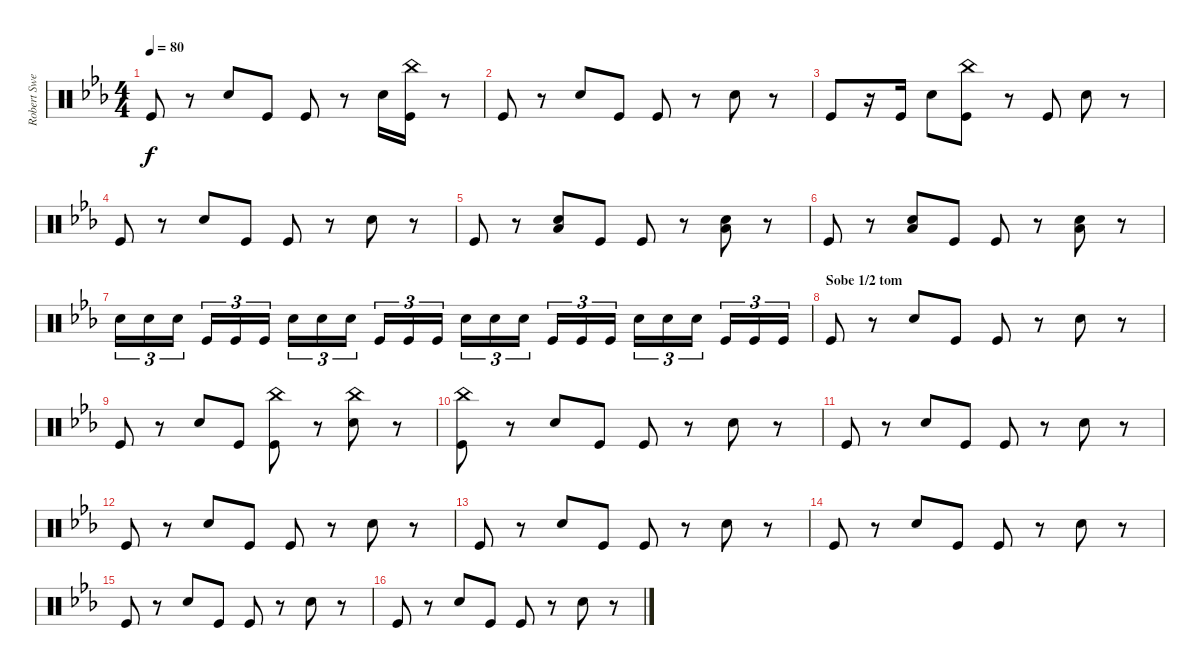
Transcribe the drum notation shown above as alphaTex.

\track ("Robert Sweet" "Robert Swe") {instrument percussion}
\staff {score}
\articulation defaults
\ts (4 4)
\tempo 80
\clef neutral
\ks eb "Kick (hit)".8{dy f}
r.8 "Snare (hit) 2".8 "Kick (hit)".8 "Kick (hit)".8 r.8 "Snare (hit) 2".16 ("Kick (hit)" "China (hit)").16 r.8 |
"Kick (hit)".8 r.8 "Snare (hit) 2".8 "Kick (hit)".8 "Kick (hit)".8 r.8 "Snare (hit) 2".8 r.8 |
"Kick (hit)".8 r.16 "Kick (hit)".16 "Snare (hit) 2".8 ("Kick (hit)" "China (hit)").8 r.8 "Kick (hit)".8 "Snare (hit) 2".8 r.8 |
"Kick (hit)".8 r.8 "Snare (hit) 2".8 "Kick (hit)".8 "Kick (hit)".8 r.8 "Snare (hit) 2".8 r.8 |
"Kick (hit)".8 r.8 ("Snare (hit) 2" "Low Floor Tom (hit)").8 "Kick (hit)".8 "Kick (hit)".8 r.8 ("Snare (hit) 2" "Low Floor Tom (hit)").8 r.8 |
"Kick (hit)".8 r.8 ("Snare (hit) 2" "Low Floor Tom (hit)").8 "Kick (hit)".8 "Kick (hit)".8 r.8 ("Snare (hit) 2" "Low Floor Tom (hit)").8 r.8 |
"Snare (hit) 2".16{tu (3 2)} "Snare (hit) 2".16{tu (3 2)} "Snare (hit) 2".16{tu (3 2)} "Kick (hit)".16{tu (3 2)} "Kick (hit)".16{tu (3 2)} "Kick (hit)".16{tu (3 2)} "Snare (hit) 2".16{tu (3 2)} "Snare (hit) 2".16{tu (3 2)} "Snare (hit) 2".16{tu (3 2)} "Kick (hit)".16{tu (3 2)} "Kick (hit)".16{tu (3 2)} "Kick (hit)".16{tu (3 2)} "Snare (hit) 2".16{tu (3 2)} "Snare (hit) 2".16{tu (3 2)} "Snare (hit) 2".16{tu (3 2)} "Kick (hit)".16{tu (3 2)} "Kick (hit)".16{tu (3 2)} "Kick (hit)".16{tu (3 2)} "Snare (hit) 2".16{tu (3 2)} "Snare (hit) 2".16{tu (3 2)} "Snare (hit) 2".16{tu (3 2)} "Kick (hit)".16{tu (3 2)} "Kick (hit)".16{tu (3 2)} "Kick (hit)".16{tu (3 2)} |
\section ("" "Sobe 1/2 tom")
"Kick (hit)".8 r.8 "Snare (hit) 2".8 "Kick (hit)".8 "Kick (hit)".8 r.8 "Snare (hit) 2".8 r.8 |
"Kick (hit)".8 r.8 "Snare (hit) 2".8 "Kick (hit)".8 ("Kick (hit)" "China (hit)").8 r.8 ("Snare (hit) 2" "China (hit)").8 r.8 |
("Kick (hit)" "China (hit)").8 r.8 "Snare (hit) 2".8 "Kick (hit)".8 "Kick (hit)".8 r.8 "Snare (hit) 2".8 r.8 |
"Kick (hit)".8 r.8 "Snare (hit) 2".8 "Kick (hit)".8 "Kick (hit)".8 r.8 "Snare (hit) 2".8 r.8 |
"Kick (hit)".8 r.8 "Snare (hit) 2".8 "Kick (hit)".8 "Kick (hit)".8 r.8 "Snare (hit) 2".8 r.8 |
"Kick (hit)".8 r.8 "Snare (hit) 2".8 "Kick (hit)".8 "Kick (hit)".8 r.8 "Snare (hit) 2".8 r.8 |
"Kick (hit)".8 r.8 "Snare (hit) 2".8 "Kick (hit)".8 "Kick (hit)".8 r.8 "Snare (hit) 2".8 r.8 |
"Kick (hit)".8 r.8 "Snare (hit) 2".8 "Kick (hit)".8 "Kick (hit)".8 r.8 "Snare (hit) 2".8 r.8 |
"Kick (hit)".8 r.8 "Snare (hit) 2".8 "Kick (hit)".8 "Kick (hit)".8 r.8 "Snare (hit) 2".8 r.8
